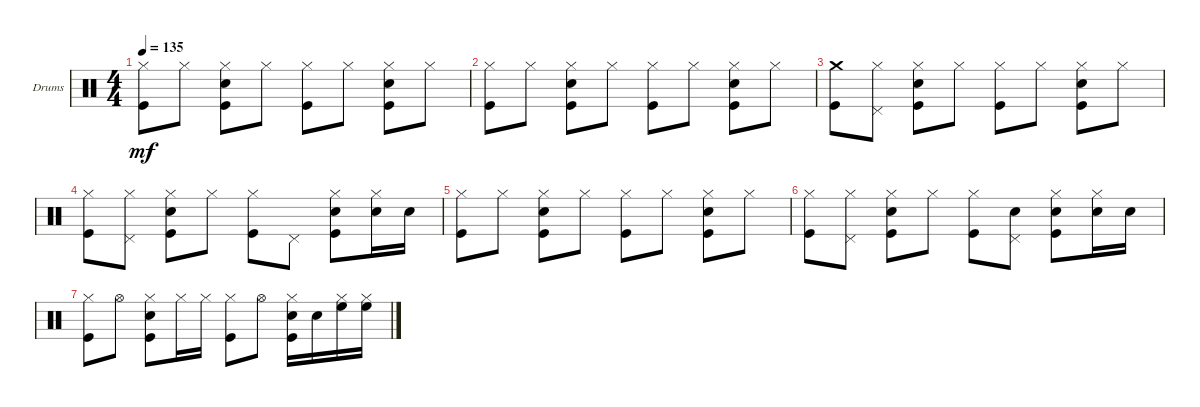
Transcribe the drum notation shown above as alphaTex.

\bracketExtendMode groupsimilarinstruments
\firstSystemTrackNameOrientation horizontal
\otherSystemsTrackNameOrientation horizontal
\track ("Drumkit" "Drums") {instrument percussion}
\staff {score}
\articulation defaults
\ts (4 4)
\tempo 135
\clef neutral
\ks c
("Hi-Hat (closed)" "Kick (hit)").8{dy mf} "Hi-Hat (closed)".8 ("Snare (hit) 2" "Kick (hit)" "Hi-Hat (closed)").8 "Hi-Hat (closed)".8 ("Hi-Hat (closed)" "Kick (hit)").8 "Hi-Hat (closed)".8 ("Snare (hit) 2" "Hi-Hat (closed)" "Kick (hit)").8 "Hi-Hat (closed)".8 |
("Hi-Hat (closed)" "Kick (hit)").8 "Hi-Hat (closed)".8 ("Kick (hit)" "Snare (hit) 2" "Hi-Hat (closed)").8 "Hi-Hat (closed)".8 ("Hi-Hat (closed)" "Kick (hit)").8 "Hi-Hat (closed)".8 ("Snare (hit) 2" "Hi-Hat (closed)" "Kick (hit)").8 "Hi-Hat (closed)".8 |
("Crash medium (hit)" "Kick (hit)").8 ("Pedal Hi-Hat (hit)" "Hi-Hat (closed)").8 ("Hi-Hat (closed)" "Snare (hit) 2" "Kick (hit)").8 "Hi-Hat (closed)".8 ("Hi-Hat (closed)" "Kick (hit)").8 "Hi-Hat (closed)".8 ("Snare (hit) 2" "Hi-Hat (closed)" "Kick (hit)").8 "Hi-Hat (closed)".8 |
("Hi-Hat (closed)" "Kick (hit)").8 ("Pedal Hi-Hat (hit)" "Hi-Hat (closed)").8 ("Hi-Hat (closed)" "Snare (hit) 2" "Kick (hit)").8 "Hi-Hat (closed)".8 ("Hi-Hat (closed)" "Kick (hit)").8 "Pedal Hi-Hat (hit)".8 ("Hi-Hat (closed)" "Snare (hit) 2" "Kick (hit)").8 ("Hi-Hat (closed)" "Snare (hit) 2").16 "Snare (hit) 2".16 |
("Hi-Hat (closed)" "Kick (hit)").8 "Hi-Hat (closed)".8 ("Snare (hit) 2" "Kick (hit)" "Hi-Hat (closed)").8 "Hi-Hat (closed)".8 ("Hi-Hat (closed)" "Kick (hit)").8 "Hi-Hat (closed)".8 ("Snare (hit) 2" "Hi-Hat (closed)" "Kick (hit)").8 "Hi-Hat (closed)".8 |
("Kick (hit)" "Hi-Hat (closed)").8 ("Hi-Hat (closed)" "Pedal Hi-Hat (hit)").8 ("Hi-Hat (closed)" "Snare (hit) 2" "Kick (hit)").8 "Hi-Hat (closed)".8 ("Hi-Hat (closed)" "Kick (hit)").8 ("Pedal Hi-Hat (hit)" "Snare (hit) 2").8 ("Snare (hit) 2" "Hi-Hat (closed)" "Kick (hit)").8 ("Hi-Hat (closed)" "Snare (hit) 2").16 "Snare (hit) 2".16 |
("Kick (hit)" "Hi-Hat (closed)").8 "Hi-Hat (open)".8 ("Kick (hit)" "Hi-Hat (closed)" "Snare (hit) 2").8 "Hi-Hat (closed)".16 "Hi-Hat (closed)".16 ("Hi-Hat (closed)" "Kick (hit)").8 "Hi-Hat (open)".8 ("Snare (hit) 2" "Kick (hit)" "Hi-Hat (closed)").16 "Snare (hit) 2".16 ("High Floor Tom (hit)" "Hi-Hat (closed)").16 ("High Floor Tom (hit)" "Hi-Hat (closed)").16
